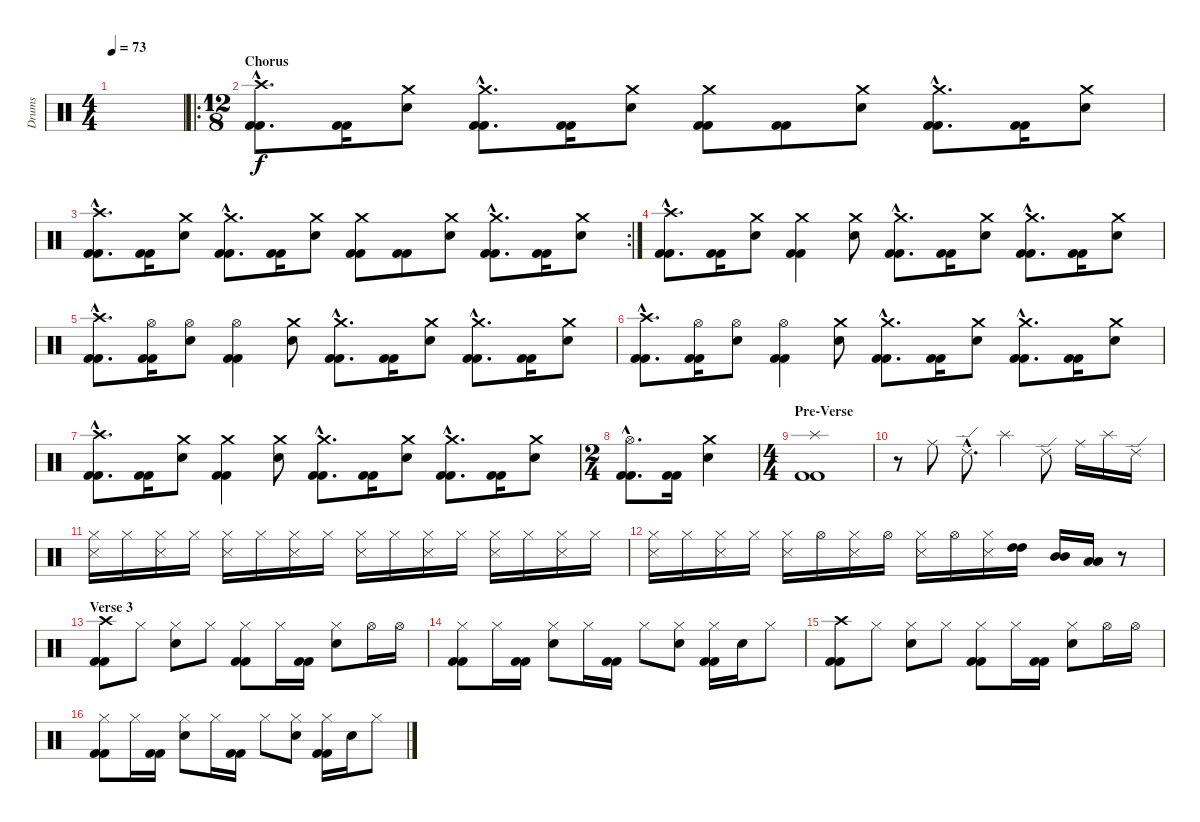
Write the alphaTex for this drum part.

\track ("Drums" "Drums") {instrument percussion}
\staff {score}
\articulation defaults
\ts (4 4)
\tempo 73
\clef neutral
\ks c
|
\ro
\ts (12 8)
\section ("" "Chorus")
("Crash high (hit)"{hac} "Kick (hit) 2"{hac} "Kick (hit) 2"{hac}).8{d dy f} ("Kick (hit) 2" "Kick (hit) 2").16 ("Crash medium (hit)" "Snare (hit) 2").8 ("Crash medium (hit)"{hac} "Kick (hit) 2"{hac} "Kick (hit) 2"{hac}).8{d} ("Kick (hit) 2" "Kick (hit) 2").16 ("Crash medium (hit)" "Snare (hit) 2").8 ("Crash medium (hit)" "Kick (hit) 2" "Kick (hit) 2").8 ("Kick (hit) 2" "Kick (hit) 2").8 ("Crash medium (hit)" "Snare (hit) 2").8 ("Crash medium (hit)"{hac} "Kick (hit) 2"{hac} "Kick (hit) 2"{hac}).8{d} ("Kick (hit) 2" "Kick (hit) 2").16 ("Crash medium (hit)" "Snare (hit) 2").8 |
\rc 2
("Crash high (hit)"{hac} "Kick (hit) 2"{hac} "Kick (hit) 2"{hac}).8{d} ("Kick (hit) 2" "Kick (hit) 2").16 ("Crash medium (hit)" "Snare (hit) 2").8 ("Crash medium (hit)"{hac} "Kick (hit) 2"{hac} "Kick (hit) 2"{hac}).8{d} ("Kick (hit) 2" "Kick (hit) 2").16 ("Crash medium (hit)" "Snare (hit) 2").8 ("Crash medium (hit)" "Kick (hit) 2" "Kick (hit) 2").8 ("Kick (hit) 2" "Kick (hit) 2").8 ("Crash medium (hit)" "Snare (hit) 2").8 ("Crash medium (hit)"{hac} "Kick (hit) 2"{hac} "Kick (hit) 2"{hac}).8{d} ("Kick (hit) 2" "Kick (hit) 2").16 ("Crash medium (hit)" "Snare (hit) 2").8 |
("Crash high (hit)"{hac} "Kick (hit) 2"{hac} "Kick (hit) 2"{hac}).8{d} ("Kick (hit) 2" "Kick (hit) 2").16 ("Crash medium (hit)" "Snare (hit) 2").8 ("Crash medium (hit)" "Kick (hit) 2" "Kick (hit) 2").4 ("Crash medium (hit)" "Snare (hit) 2").8 ("Crash medium (hit)"{hac} "Kick (hit) 2"{hac} "Kick (hit) 2"{hac}).8{d} ("Kick (hit) 2" "Kick (hit) 2").16 ("Crash medium (hit)" "Snare (hit) 2").8 ("Crash medium (hit)"{hac} "Kick (hit) 2"{hac} "Kick (hit) 2"{hac}).8{d} ("Kick (hit) 2" "Kick (hit) 2").16 ("Crash medium (hit)" "Snare (hit) 2").8 |
("Crash high (hit)"{hac} "Kick (hit) 2"{hac} "Kick (hit) 2"{hac}).8{d} ("Hi-Hat (open)" "Kick (hit) 2" "Kick (hit) 2").16 ("Hi-Hat (open)" "Snare (hit) 2").8 ("Hi-Hat (open)" "Kick (hit) 2" "Kick (hit) 2").4 ("Crash medium (hit)" "Snare (hit) 2").8 ("Crash medium (hit)"{hac} "Kick (hit) 2"{hac} "Kick (hit) 2"{hac}).8{d} ("Kick (hit) 2" "Kick (hit) 2").16 ("Crash medium (hit)" "Snare (hit) 2").8 ("Crash medium (hit)"{hac} "Kick (hit) 2"{hac} "Kick (hit) 2"{hac}).8{d} ("Kick (hit) 2" "Kick (hit) 2").16 ("Crash medium (hit)" "Snare (hit) 2").8 |
("Crash high (hit)"{hac} "Kick (hit) 2"{hac} "Kick (hit) 2"{hac}).8{d} ("Hi-Hat (open)" "Kick (hit) 2" "Kick (hit) 2").16 ("Hi-Hat (open)" "Snare (hit) 2").8 ("Hi-Hat (open)" "Kick (hit) 2" "Kick (hit) 2").4 ("Crash medium (hit)" "Snare (hit) 2").8 ("Crash medium (hit)"{hac} "Kick (hit) 2"{hac} "Kick (hit) 2"{hac}).8{d} ("Kick (hit) 2" "Kick (hit) 2").16 ("Crash medium (hit)" "Snare (hit) 2").8 ("Crash medium (hit)"{hac} "Kick (hit) 2"{hac} "Kick (hit) 2"{hac}).8{d} ("Kick (hit) 2" "Kick (hit) 2").16 ("Crash medium (hit)" "Snare (hit) 2").8 |
("Crash high (hit)"{hac} "Kick (hit) 2"{hac} "Kick (hit) 2"{hac}).8{d} ("Kick (hit) 2" "Kick (hit) 2").16 ("Crash medium (hit)" "Snare (hit) 2").8 ("Crash medium (hit)" "Kick (hit) 2" "Kick (hit) 2").4 ("Crash medium (hit)" "Snare (hit) 2").8 ("Crash medium (hit)"{hac} "Kick (hit) 2"{hac} "Kick (hit) 2"{hac}).8{d} ("Kick (hit) 2" "Kick (hit) 2").16 ("Crash medium (hit)" "Snare (hit) 2").8 ("Crash medium (hit)"{hac} "Kick (hit) 2"{hac} "Kick (hit) 2"{hac}).8{d} ("Kick (hit) 2" "Kick (hit) 2").16 ("Crash medium (hit)" "Snare (hit) 2").8 |
\ts (2 4)
("Hi-Hat (open)"{hac} "Kick (hit) 2"{hac} "Kick (hit) 2"{hac}).8{d} ("Kick (hit) 2" "Kick (hit) 2").16 ("Crash medium (hit)" "Snare (hit) 2").4 |
\ts (4 4)
\section ("" "Pre-Verse")
("Splash (hit)" "Kick (hit) 2" "Kick (hit) 2").1 |
r.8 "Ride (middle)".8 "Ride (edge) 2"{hac}.8{d} "Splash (hit)".4 "Ride (edge) 2".8 "Ride (middle)".16 "Splash (hit)".16 "Ride (edge) 2".16 |
("Snare (side stick) 3" "Hi-Hat (closed)").16 "Hi-Hat (closed)".16 ("Snare (side stick) 3" "Hi-Hat (closed)").16 "Hi-Hat (closed)".16 ("Snare (side stick) 3" "Hi-Hat (closed)").16 "Hi-Hat (closed)".16 ("Snare (side stick) 3" "Hi-Hat (closed)").16 "Hi-Hat (closed)".16 ("Snare (side stick) 3" "Hi-Hat (closed)").16 "Hi-Hat (closed)".16 ("Snare (side stick) 3" "Hi-Hat (closed)").16 "Hi-Hat (closed)".16 ("Snare (side stick) 3" "Hi-Hat (closed)").16 "Hi-Hat (closed)".16 ("Snare (side stick) 3" "Hi-Hat (closed)").16 "Hi-Hat (closed)".16 |
("Snare (side stick) 3" "Hi-Hat (closed)").16 "Hi-Hat (closed)".16 ("Snare (side stick) 3" "Hi-Hat (closed)").16 "Hi-Hat (closed)".16 ("Snare (side stick) 3" "Hi-Hat (closed)").16 "Hi-Hat (open)".16 ("Snare (side stick) 3" "Hi-Hat (closed)").16 "Hi-Hat (open)".16 ("Snare (side stick) 3" "Hi-Hat (closed)").16 "Hi-Hat (open)".16 ("Snare (side stick) 3" "Hi-Hat (closed)").16 ("High Tom (hit)" "High Tom (hit)").16 ("Mid Tom (hit)" "Mid Tom (hit)").16 ("Low Tom (hit)" "Low Tom (hit)").16 r.8 |
\section ("" "Verse 3")
("Crash high (hit)" "Kick (hit) 2" "Kick (hit) 2").8 "Hi-Hat (closed)".8 ("Hi-Hat (closed)" "Snare (hit) 2").8 "Hi-Hat (closed)".8 ("Hi-Hat (closed)" "Kick (hit) 2" "Kick (hit) 2").8 "Hi-Hat (closed)".16 ("Kick (hit) 2" "Kick (hit) 2").16 ("Hi-Hat (closed)" "Snare (hit) 2").8 "Hi-Hat (open)".16 "Hi-Hat (open)".16 |
("Hi-Hat (closed)" "Kick (hit) 2" "Kick (hit) 2").8 "Hi-Hat (closed)".16 ("Kick (hit) 2" "Kick (hit) 2").16 ("Hi-Hat (closed)" "Snare (hit) 2").8 "Hi-Hat (closed)".16 ("Kick (hit) 2" "Kick (hit) 2").16 "Hi-Hat (closed)".8 ("Hi-Hat (closed)" "Snare (hit) 2").8 ("Hi-Hat (closed)" "Kick (hit) 2" "Kick (hit) 2").16 "Snare (hit) 2".16 "Hi-Hat (closed)".8 |
("Crash high (hit)" "Kick (hit) 2" "Kick (hit) 2").8 "Hi-Hat (closed)".8 ("Hi-Hat (closed)" "Snare (hit) 2").8 "Hi-Hat (closed)".8 ("Hi-Hat (closed)" "Kick (hit) 2" "Kick (hit) 2").8 "Hi-Hat (closed)".16 ("Kick (hit) 2" "Kick (hit) 2").16 ("Hi-Hat (closed)" "Snare (hit) 2").8 "Hi-Hat (open)".16 "Hi-Hat (open)".16 |
("Hi-Hat (closed)" "Kick (hit) 2" "Kick (hit) 2").8 "Hi-Hat (closed)".16 ("Kick (hit) 2" "Kick (hit) 2").16 ("Hi-Hat (closed)" "Snare (hit) 2").8 "Hi-Hat (closed)".16 ("Kick (hit) 2" "Kick (hit) 2").16 "Hi-Hat (closed)".8 ("Hi-Hat (closed)" "Snare (hit) 2").8 ("Hi-Hat (closed)" "Kick (hit) 2" "Kick (hit) 2").16 "Snare (hit) 2".16 "Hi-Hat (closed)".8
